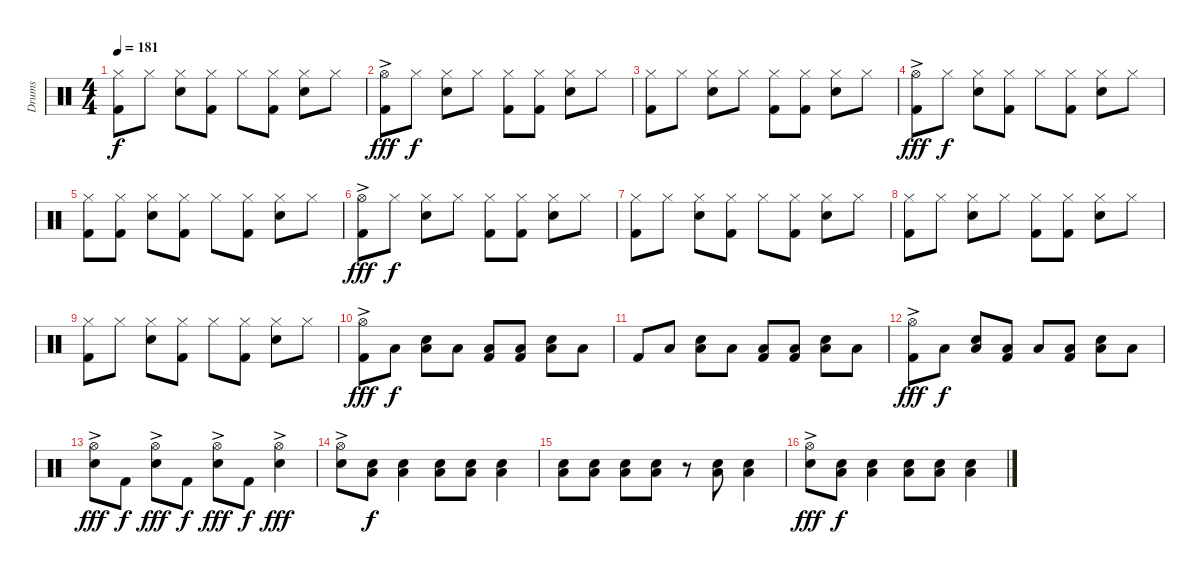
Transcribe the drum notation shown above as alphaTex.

\track ("Drums" "Drums") {instrument percussion}
\staff {score}
\articulation defaults
\ts (4 4)
\tempo 181
\clef neutral
\ks c
("Hi-Hat (closed)" "Kick (hit) 2").8{dy f} "Hi-Hat (closed)".8 ("Hi-Hat (closed)" "Snare (hit) 2").8 ("Hi-Hat (closed)" "Kick (hit) 2").8 "Hi-Hat (closed)".8 ("Hi-Hat (closed)" "Kick (hit) 2").8 ("Hi-Hat (closed)" "Snare (hit) 2").8 "Hi-Hat (closed)".8 |
("Hi-Hat (open)"{ac} "Kick (hit) 2").8{dy fff} "Hi-Hat (closed)".8{dy f} ("Hi-Hat (closed)" "Snare (hit) 2").8 "Hi-Hat (closed)".8 ("Hi-Hat (closed)" "Kick (hit) 2").8 ("Hi-Hat (closed)" "Kick (hit) 2").8 ("Hi-Hat (closed)" "Snare (hit) 2").8 "Hi-Hat (closed)".8 |
("Hi-Hat (closed)" "Kick (hit) 2").8 "Hi-Hat (closed)".8 ("Hi-Hat (closed)" "Snare (hit) 2").8 "Hi-Hat (closed)".8 ("Hi-Hat (closed)" "Kick (hit) 2").8 ("Hi-Hat (closed)" "Kick (hit) 2").8 ("Hi-Hat (closed)" "Snare (hit) 2").8 "Hi-Hat (closed)".8 |
("Hi-Hat (open)"{ac} "Kick (hit) 2").8{dy fff} "Hi-Hat (closed)".8{dy f} ("Hi-Hat (closed)" "Snare (hit) 2").8 ("Hi-Hat (closed)" "Kick (hit) 2").8 "Hi-Hat (closed)".8 ("Hi-Hat (closed)" "Kick (hit) 2").8 ("Hi-Hat (closed)" "Snare (hit) 2").8 "Hi-Hat (closed)".8 |
("Hi-Hat (closed)" "Kick (hit) 2").8 ("Hi-Hat (closed)" "Kick (hit) 2").8 ("Hi-Hat (closed)" "Snare (hit) 2").8 ("Hi-Hat (closed)" "Kick (hit) 2").8 "Hi-Hat (closed)".8 ("Hi-Hat (closed)" "Kick (hit) 2").8 ("Hi-Hat (closed)" "Snare (hit) 2").8 "Hi-Hat (closed)".8 |
("Hi-Hat (open)"{ac} "Kick (hit) 2").8{dy fff} "Hi-Hat (closed)".8{dy f} ("Hi-Hat (closed)" "Snare (hit) 2").8 "Hi-Hat (closed)".8 ("Hi-Hat (closed)" "Kick (hit) 2").8 ("Hi-Hat (closed)" "Kick (hit) 2").8 ("Hi-Hat (closed)" "Snare (hit) 2").8 "Hi-Hat (closed)".8 |
("Hi-Hat (closed)" "Kick (hit) 2").8 "Hi-Hat (closed)".8 ("Hi-Hat (closed)" "Snare (hit) 2").8 ("Hi-Hat (closed)" "Kick (hit) 2").8 "Hi-Hat (closed)".8 ("Hi-Hat (closed)" "Kick (hit) 2").8 ("Hi-Hat (closed)" "Snare (hit) 2").8 "Hi-Hat (closed)".8 |
("Hi-Hat (closed)" "Kick (hit) 2").8 "Hi-Hat (closed)".8 ("Hi-Hat (closed)" "Snare (hit) 2").8 "Hi-Hat (closed)".8 ("Hi-Hat (closed)" "Kick (hit) 2").8 ("Hi-Hat (closed)" "Kick (hit) 2").8 ("Hi-Hat (closed)" "Snare (hit) 2").8 "Hi-Hat (closed)".8 |
("Hi-Hat (closed)" "Kick (hit) 2").8 "Hi-Hat (closed)".8 ("Hi-Hat (closed)" "Snare (hit) 2").8 ("Hi-Hat (closed)" "Kick (hit) 2").8 "Hi-Hat (closed)".8 ("Hi-Hat (closed)" "Kick (hit) 2").8 ("Hi-Hat (closed)" "Snare (hit) 2").8 "Hi-Hat (closed)".8 |
("Hi-Hat (open)"{ac} "Kick (hit) 2").8{dy fff} "Low Tom (hit)".8{dy f} ("Snare (hit) 2" "Low Tom (hit)").8 "Low Tom (hit)".8 ("Low Tom (hit)" "Kick (hit) 2").8 ("Low Tom (hit)" "Kick (hit) 2").8 ("Snare (hit) 2" "Low Tom (hit)").8 "Low Tom (hit)".8 |
"Kick (hit) 2".8 "Low Tom (hit)".8 ("Snare (hit) 2" "Low Tom (hit)").8 "Low Tom (hit)".8 ("Low Tom (hit)" "Kick (hit) 2").8 ("Low Tom (hit)" "Kick (hit) 2").8 ("Snare (hit) 2" "Low Tom (hit)").8 "Low Tom (hit)".8 |
("Hi-Hat (open)"{ac} "Kick (hit) 2").8{dy fff} "Low Tom (hit)".8{dy f} ("Snare (hit) 2" "Low Tom (hit)").8 ("Low Tom (hit)" "Kick (hit) 2").8 "Low Tom (hit)".8 ("Low Tom (hit)" "Kick (hit) 2").8 ("Snare (hit) 2" "Low Tom (hit)").8 "Low Tom (hit)".8 |
("Hi-Hat (open)"{ac} "Snare (hit) 2").8{dy fff} "Kick (hit) 2".8{dy f} ("Hi-Hat (open)"{ac} "Snare (hit) 2").8{dy fff} "Kick (hit) 2".8{dy f} ("Hi-Hat (open)"{ac} "Snare (hit) 2").8{dy fff} "Kick (hit) 2".8{dy f} ("Hi-Hat (open)"{ac} "Snare (hit) 2").4{dy fff} |
("Hi-Hat (open)"{ac} "Snare (hit) 2").8 ("Snare (hit) 2" "Low Tom (hit)").8{dy f} ("Snare (hit) 2" "Low Tom (hit)").4 ("Snare (hit) 2" "Low Tom (hit)").8 ("Snare (hit) 2" "Low Tom (hit)").8 ("Snare (hit) 2" "Low Tom (hit)").4 |
("Snare (hit) 2" "Low Tom (hit)").8 ("Snare (hit) 2" "Low Tom (hit)").8 ("Snare (hit) 2" "Low Tom (hit)").8 ("Snare (hit) 2" "Low Tom (hit)").8 r.8 ("Snare (hit) 2" "Low Tom (hit)").8 ("Snare (hit) 2" "Low Tom (hit)").4 |
("Hi-Hat (open)"{ac} "Snare (hit) 2").8{dy fff} ("Snare (hit) 2" "Low Tom (hit)").8{dy f} ("Snare (hit) 2" "Low Tom (hit)").4 ("Snare (hit) 2" "Low Tom (hit)").8 ("Snare (hit) 2" "Low Tom (hit)").8 ("Snare (hit) 2" "Low Tom (hit)").4
